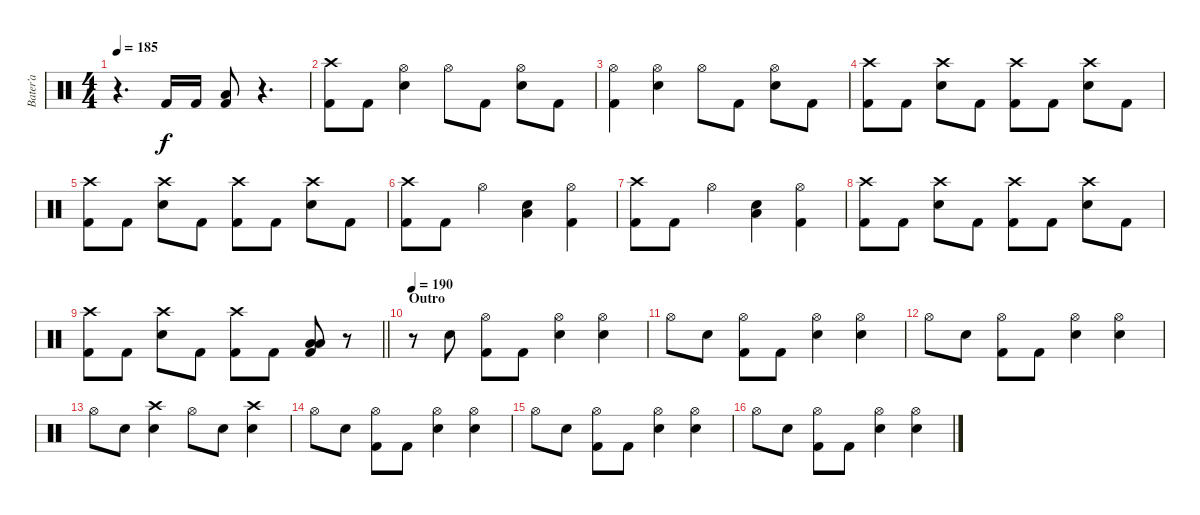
\track ("Bater’a" "Bater’a") {instrument percussion}
\staff {score}
\articulation defaults
\ts (4 4)
\tempo 185
\clef neutral
\ks c
r.4{d dy f} "Kick (hit) 2".16 "Kick (hit) 2".16 ("Low Floor Tom (hit)" "Kick (hit) 2").8 r.4{d} |
("Crash high (hit)" "Kick (hit) 2").8 "Kick (hit) 2".8 ("Hi-Hat (open)" "Electric Snare (hit)").4 "Hi-Hat (open)".8 "Kick (hit) 2".8 ("Hi-Hat (open)" "Electric Snare (hit)").8 "Kick (hit) 2".8 |
("Hi-Hat (open)" "Kick (hit) 2").4 ("Hi-Hat (open)" "Electric Snare (hit)").4 "Hi-Hat (open)".8 "Kick (hit) 2".8 ("Hi-Hat (open)" "Electric Snare (hit)").8 "Kick (hit) 2".8 |
("Crash high (hit)" "Kick (hit) 2").8 "Kick (hit) 2".8 ("Crash high (hit)" "Electric Snare (hit)").8 "Kick (hit) 2".8 ("Crash high (hit)" "Kick (hit) 2").8 "Kick (hit) 2".8 ("Crash high (hit)" "Electric Snare (hit)").8 "Kick (hit) 2".8 |
("Crash high (hit)" "Kick (hit) 2").8 "Kick (hit) 2".8 ("Crash high (hit)" "Electric Snare (hit)").8 "Kick (hit) 2".8 ("Crash high (hit)" "Kick (hit) 2").8 "Kick (hit) 2".8 ("Crash high (hit)" "Electric Snare (hit)").8 "Kick (hit) 2".8 |
("Crash high (hit)" "Kick (hit) 2").8 "Kick (hit) 2".8 "Hi-Hat (open)".4 ("Low Floor Tom (hit)" "Electric Snare (hit)").4 ("Hi-Hat (open)" "Kick (hit) 2").4 |
("Crash high (hit)" "Kick (hit) 2").8 "Kick (hit) 2".8 "Hi-Hat (open)".4 ("Low Floor Tom (hit)" "Electric Snare (hit)").4 ("Hi-Hat (open)" "Kick (hit) 2").4 |
("Crash high (hit)" "Kick (hit) 2").8 "Kick (hit) 2".8 ("Crash high (hit)" "Electric Snare (hit)").8 "Kick (hit) 2".8 ("Crash high (hit)" "Kick (hit) 2").8 "Kick (hit) 2".8 ("Crash high (hit)" "Electric Snare (hit)").8 "Kick (hit) 2".8 |
\barLineRight lightlight
("Crash high (hit)" "Kick (hit) 2").8 "Kick (hit) 2".8 ("Crash high (hit)" "Electric Snare (hit)").8 "Kick (hit) 2".8 ("Crash high (hit)" "Kick (hit) 2").8 "Kick (hit) 2".8 ("Low Tom (hit)" "Low Floor Tom (hit)" "Kick (hit) 2").8 r.8 |
\section ("" "Outro")
\tempo 190
r.8 "Electric Snare (hit)".8 ("Hi-Hat (open)" "Kick (hit) 2").8 "Kick (hit) 2".8 ("Hi-Hat (open)" "Electric Snare (hit)").4 ("Hi-Hat (open)" "Electric Snare (hit)").4 |
"Hi-Hat (open)".8 "Electric Snare (hit)".8 ("Hi-Hat (open)" "Kick (hit) 2").8 "Kick (hit) 2".8 ("Hi-Hat (open)" "Electric Snare (hit)").4 ("Hi-Hat (open)" "Electric Snare (hit)").4 |
"Hi-Hat (open)".8 "Electric Snare (hit)".8 ("Hi-Hat (open)" "Kick (hit) 2").8 "Kick (hit) 2".8 ("Hi-Hat (open)" "Electric Snare (hit)").4 ("Hi-Hat (open)" "Electric Snare (hit)").4 |
"Hi-Hat (open)".8 "Electric Snare (hit)".8 ("Crash high (hit)" "Electric Snare (hit)").4 "Hi-Hat (open)".8 "Electric Snare (hit)".8 ("Crash high (hit)" "Electric Snare (hit)").4 |
"Hi-Hat (open)".8 "Electric Snare (hit)".8 ("Hi-Hat (open)" "Kick (hit) 2").8 "Kick (hit) 2".8 ("Hi-Hat (open)" "Electric Snare (hit)").4 ("Hi-Hat (open)" "Electric Snare (hit)").4 |
"Hi-Hat (open)".8 "Electric Snare (hit)".8 ("Hi-Hat (open)" "Kick (hit) 2").8 "Kick (hit) 2".8 ("Hi-Hat (open)" "Electric Snare (hit)").4 ("Hi-Hat (open)" "Electric Snare (hit)").4 |
"Hi-Hat (open)".8 "Electric Snare (hit)".8 ("Hi-Hat (open)" "Kick (hit) 2").8 "Kick (hit) 2".8 ("Hi-Hat (open)" "Electric Snare (hit)").4 ("Hi-Hat (open)" "Electric Snare (hit)").4
